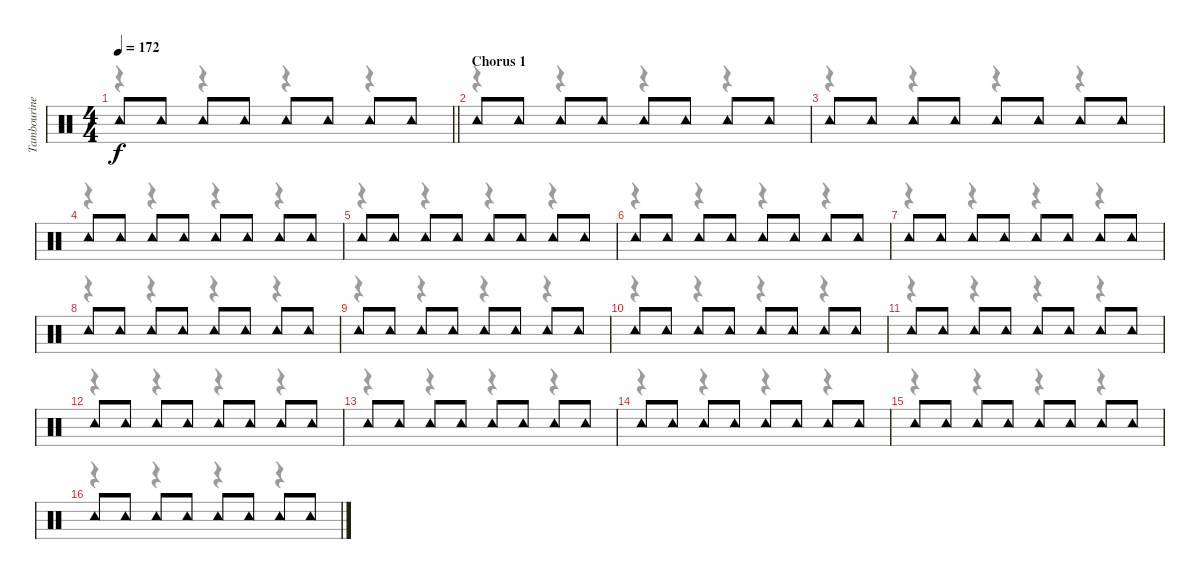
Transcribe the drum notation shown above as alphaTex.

\track ("Tambourine" "Tambourine") {instrument percussion}
\staff {score}
\articulation defaults
\voice
\ts (4 4)
\tempo 172
\clef neutral
\barLineRight lightlight
\ks c "Tambourine (hit)".8{dy f} "Tambourine (hit)".8 "Tambourine (hit)".8 "Tambourine (hit)".8 "Tambourine (hit)".8 "Tambourine (hit)".8 "Tambourine (hit)".8 "Tambourine (hit)".8
|
\section ("" "Chorus 1")
"Tambourine (hit)".8 "Tambourine (hit)".8 "Tambourine (hit)".8 "Tambourine (hit)".8 "Tambourine (hit)".8 "Tambourine (hit)".8 "Tambourine (hit)".8 "Tambourine (hit)".8 |
"Tambourine (hit)".8 "Tambourine (hit)".8 "Tambourine (hit)".8 "Tambourine (hit)".8 "Tambourine (hit)".8 "Tambourine (hit)".8 "Tambourine (hit)".8 "Tambourine (hit)".8 |
"Tambourine (hit)".8 "Tambourine (hit)".8 "Tambourine (hit)".8 "Tambourine (hit)".8 "Tambourine (hit)".8 "Tambourine (hit)".8 "Tambourine (hit)".8 "Tambourine (hit)".8 |
"Tambourine (hit)".8 "Tambourine (hit)".8 "Tambourine (hit)".8 "Tambourine (hit)".8 "Tambourine (hit)".8 "Tambourine (hit)".8 "Tambourine (hit)".8 "Tambourine (hit)".8 |
"Tambourine (hit)".8 "Tambourine (hit)".8 "Tambourine (hit)".8 "Tambourine (hit)".8 "Tambourine (hit)".8 "Tambourine (hit)".8 "Tambourine (hit)".8 "Tambourine (hit)".8 |
"Tambourine (hit)".8 "Tambourine (hit)".8 "Tambourine (hit)".8 "Tambourine (hit)".8 "Tambourine (hit)".8 "Tambourine (hit)".8 "Tambourine (hit)".8 "Tambourine (hit)".8 |
"Tambourine (hit)".8 "Tambourine (hit)".8 "Tambourine (hit)".8 "Tambourine (hit)".8 "Tambourine (hit)".8 "Tambourine (hit)".8 "Tambourine (hit)".8 "Tambourine (hit)".8 |
"Tambourine (hit)".8 "Tambourine (hit)".8 "Tambourine (hit)".8 "Tambourine (hit)".8 "Tambourine (hit)".8 "Tambourine (hit)".8 "Tambourine (hit)".8 "Tambourine (hit)".8 |
"Tambourine (hit)".8 "Tambourine (hit)".8 "Tambourine (hit)".8 "Tambourine (hit)".8 "Tambourine (hit)".8 "Tambourine (hit)".8 "Tambourine (hit)".8 "Tambourine (hit)".8 |
"Tambourine (hit)".8 "Tambourine (hit)".8 "Tambourine (hit)".8 "Tambourine (hit)".8 "Tambourine (hit)".8 "Tambourine (hit)".8 "Tambourine (hit)".8 "Tambourine (hit)".8 |
"Tambourine (hit)".8 "Tambourine (hit)".8 "Tambourine (hit)".8 "Tambourine (hit)".8 "Tambourine (hit)".8 "Tambourine (hit)".8 "Tambourine (hit)".8 "Tambourine (hit)".8 |
"Tambourine (hit)".8 "Tambourine (hit)".8 "Tambourine (hit)".8 "Tambourine (hit)".8 "Tambourine (hit)".8 "Tambourine (hit)".8 "Tambourine (hit)".8 "Tambourine (hit)".8 |
"Tambourine (hit)".8 "Tambourine (hit)".8 "Tambourine (hit)".8 "Tambourine (hit)".8 "Tambourine (hit)".8 "Tambourine (hit)".8 "Tambourine (hit)".8 "Tambourine (hit)".8 |
"Tambourine (hit)".8 "Tambourine (hit)".8 "Tambourine (hit)".8 "Tambourine (hit)".8 "Tambourine (hit)".8 "Tambourine (hit)".8 "Tambourine (hit)".8 "Tambourine (hit)".8 |
"Tambourine (hit)".8 "Tambourine (hit)".8 "Tambourine (hit)".8 "Tambourine (hit)".8 "Tambourine (hit)".8 "Tambourine (hit)".8 "Tambourine (hit)".8 "Tambourine (hit)".8
\voice
\clef neutral
\ottava regular
\simile none
\barLineRight lightlight
\ks c
r.4{dy f} r.4 r.4 r.4 |
r.4 r.4 r.4 r.4 |
r.4 r.4 r.4 r.4 |
r.4 r.4 r.4 r.4 |
r.4 r.4 r.4 r.4 |
r.4 r.4 r.4 r.4 |
r.4 r.4 r.4 r.4 |
r.4 r.4 r.4 r.4 |
r.4 r.4 r.4 r.4 |
r.4 r.4 r.4 r.4 |
r.4 r.4 r.4 r.4 |
r.4 r.4 r.4 r.4 |
r.4 r.4 r.4 r.4 |
r.4 r.4 r.4 r.4 |
r.4 r.4 r.4 r.4 |
r.4 r.4 r.4 r.4
